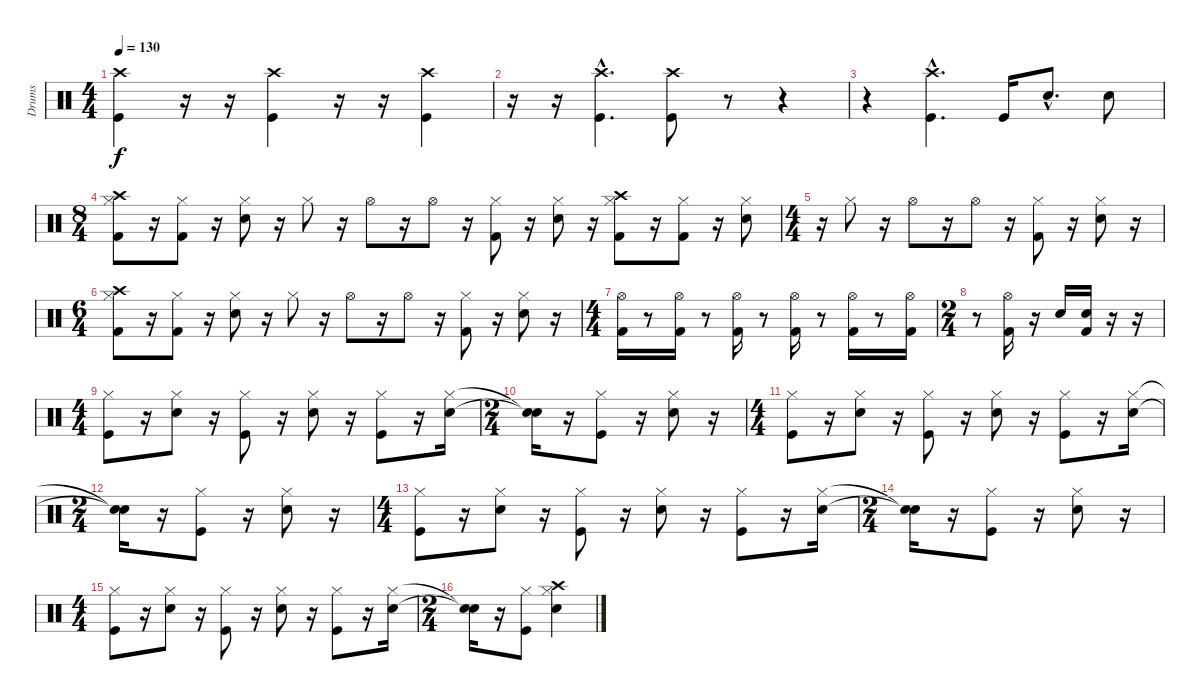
\track ("Drums" "Drums") {instrument percussion}
\staff {score}
\articulation defaults
\ts (4 4)
\tempo 130
\clef neutral
\ks c
("Kick (hit)" "Crash high (hit)").4{dy f} r.16 r.16 ("Kick (hit)" "Crash high (hit)").4 r.16 r.16 ("Kick (hit)" "Crash high (hit)").4 |
r.16 r.16 ("Kick (hit)"{hac} "Crash high (hit)"{hac}).4{d} ("Kick (hit)" "Crash high (hit)").8 r.8 r.4 |
r.4 ("Kick (hit)"{hac} "Crash high (hit)"{hac}).4{d} "Kick (hit)".16 "Snare (hit) 2"{hac}.8{d} "Snare (hit) 2".8 |
\ts (8 4)
("Hi-Hat (closed)" "Crash high (hit)" "Kick (hit) 2").8 r.16 ("Hi-Hat (closed)" "Kick (hit) 2").8 r.16 ("Hi-Hat (closed)" "Snare (hit) 2").8 r.16 "Hi-Hat (closed)".8 r.16 "Hi-Hat (open)".8 r.16 "Hi-Hat (open)".8 r.16 ("Hi-Hat (closed)" "Kick (hit) 2").8 r.16 ("Hi-Hat (closed)" "Snare (hit) 2").8 r.16 ("Hi-Hat (closed)" "Crash high (hit)" "Kick (hit) 2").8 r.16 ("Hi-Hat (closed)" "Kick (hit) 2").8 r.16 ("Hi-Hat (closed)" "Snare (hit) 2").8 |
\ts (4 4)
r.16 "Hi-Hat (closed)".8 r.16 "Hi-Hat (open)".8 r.16 "Hi-Hat (open)".8 r.16 ("Hi-Hat (closed)" "Kick (hit) 2").8 r.16 ("Hi-Hat (closed)" "Snare (hit) 2").8 r.16 |
\ts (6 4)
("Hi-Hat (closed)" "Crash high (hit)" "Kick (hit) 2").8 r.16 ("Hi-Hat (closed)" "Kick (hit) 2").8 r.16 ("Hi-Hat (closed)" "Snare (hit) 2").8 r.16 "Hi-Hat (closed)".8 r.16 "Hi-Hat (open)".8 r.16 "Hi-Hat (open)".8 r.16 ("Hi-Hat (closed)" "Kick (hit) 2").8 r.16 ("Hi-Hat (closed)" "Snare (hit) 2").8 r.16 |
\ts (4 4)
("Hi-Hat (open)" "Kick (hit) 2").16 r.8 ("Hi-Hat (open)" "Kick (hit) 2").16 r.8 ("Hi-Hat (open)" "Kick (hit) 2").16 r.8 ("Hi-Hat (open)" "Kick (hit) 2").16 r.8 ("Hi-Hat (open)" "Kick (hit) 2").16 r.8 ("Hi-Hat (open)" "Kick (hit) 2").16 |
\ts (2 4)
r.8 ("Hi-Hat (open)" "Kick (hit) 2").16 r.16 "Snare (hit) 2".16 ("Snare (hit) 2" "Kick (hit) 2").16 r.16 r.16 |
\ts (4 4)
("Hi-Hat (closed)" "Kick (hit)").8 r.16 ("Hi-Hat (closed)" "Snare (hit) 2").8 r.16 ("Hi-Hat (closed)" "Kick (hit)").8 r.16 ("Hi-Hat (closed)" "Snare (hit) 2").8 r.16 ("Hi-Hat (closed)" "Kick (hit)").8 r.16 ("Hi-Hat (closed)" "Snare (hit) 2").16 |
\ts (2 4)
("Snare (hit)"{t} "Snare (hit)"{t}).16 r.16 ("Hi-Hat (closed)" "Kick (hit)").8 r.16 ("Hi-Hat (closed)" "Snare (hit) 2").8 r.16 |
\ts (4 4)
("Hi-Hat (closed)" "Kick (hit)").8 r.16 ("Hi-Hat (closed)" "Snare (hit) 2").8 r.16 ("Hi-Hat (closed)" "Kick (hit)").8 r.16 ("Hi-Hat (closed)" "Snare (hit) 2").8 r.16 ("Hi-Hat (closed)" "Kick (hit)").8 r.16 ("Hi-Hat (closed)" "Snare (hit) 2").16 |
\ts (2 4)
("Snare (hit)"{t} "Snare (hit)"{t}).16 r.16 ("Hi-Hat (closed)" "Kick (hit)").8 r.16 ("Hi-Hat (closed)" "Snare (hit) 2").8 r.16 |
\ts (4 4)
("Hi-Hat (closed)" "Kick (hit)").8 r.16 ("Hi-Hat (closed)" "Snare (hit) 2").8 r.16 ("Hi-Hat (closed)" "Kick (hit)").8 r.16 ("Hi-Hat (closed)" "Snare (hit) 2").8 r.16 ("Hi-Hat (closed)" "Kick (hit)").8 r.16 ("Hi-Hat (closed)" "Snare (hit) 2").16 |
\ts (2 4)
("Snare (hit)"{t} "Snare (hit)"{t}).16 r.16 ("Hi-Hat (closed)" "Kick (hit)").8 r.16 ("Hi-Hat (closed)" "Snare (hit) 2").8 r.16 |
\ts (4 4)
("Hi-Hat (closed)" "Kick (hit)").8 r.16 ("Hi-Hat (closed)" "Snare (hit) 2").8 r.16 ("Hi-Hat (closed)" "Kick (hit)").8 r.16 ("Hi-Hat (closed)" "Snare (hit) 2").8 r.16 ("Hi-Hat (closed)" "Kick (hit)").8 r.16 ("Hi-Hat (closed)" "Snare (hit) 2").16 |
\ts (2 4)
("Snare (hit)"{t} "Snare (hit)"{t}).16 r.16 ("Hi-Hat (closed)" "Kick (hit)").8 ("Hi-Hat (closed)" "Snare (hit) 2" "Crash high (hit)").4
